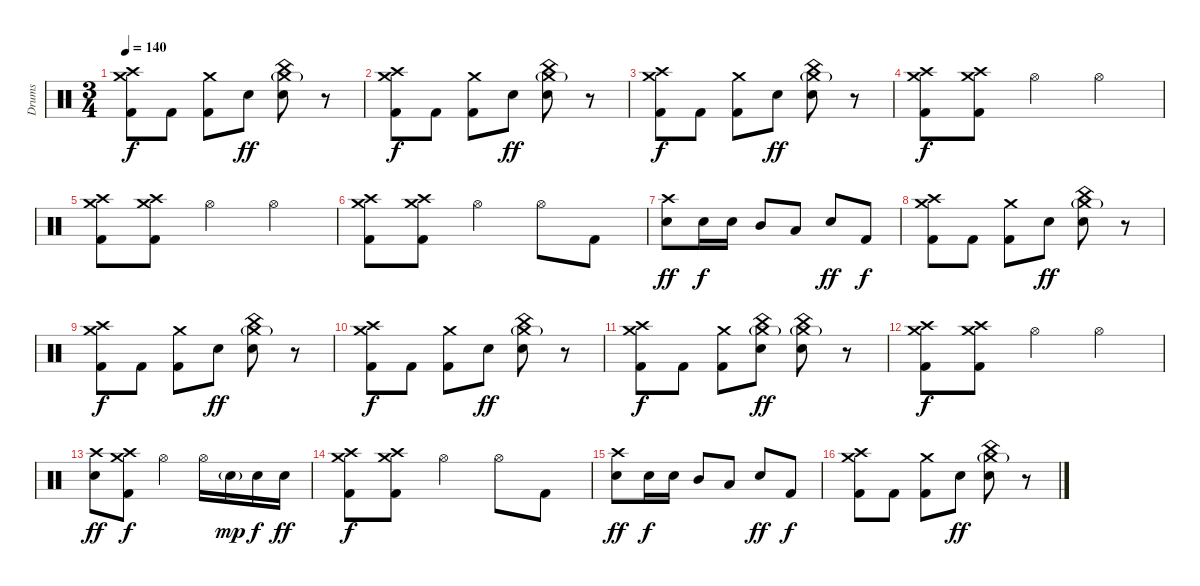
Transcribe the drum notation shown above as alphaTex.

\track ("Drums" "Drums") {instrument percussion}
\staff {score}
\articulation defaults
\ts (3 4)
\tempo 140
\clef neutral
\ks c
("Crash high (hit)" "Crash medium (hit)" "Kick (hit) 2").8{dy f} "Kick (hit) 2".8 ("Crash medium (hit)" "Kick (hit) 2").8 "Snare (hit) 2".8{dy ff} ("China (hit)" "Crash medium (hit)"{g} "Snare (hit) 2").8 r.8 |
("Crash high (hit)" "Crash medium (hit)" "Kick (hit) 2").8{dy f} "Kick (hit) 2".8 ("Crash medium (hit)" "Kick (hit) 2").8 "Snare (hit) 2".8{dy ff} ("China (hit)" "Crash medium (hit)"{g} "Snare (hit) 2").8 r.8 |
("Crash high (hit)" "Crash medium (hit)" "Kick (hit) 2").8{dy f} "Kick (hit) 2".8 ("Crash medium (hit)" "Kick (hit) 2").8 "Snare (hit) 2".8{dy ff} ("China (hit)" "Crash medium (hit)"{g} "Snare (hit) 2").8 r.8 |
("Crash high (hit)" "Crash medium (hit)" "Kick (hit) 2").8{dy f} ("Crash high (hit)" "Crash medium (hit)" "Kick (hit) 2").8 "Hi-Hat (open)".4 "Hi-Hat (open)".4 |
("Crash high (hit)" "Crash medium (hit)" "Kick (hit) 2").8 ("Crash high (hit)" "Crash medium (hit)" "Kick (hit) 2").8 "Hi-Hat (open)".4 "Hi-Hat (open)".4 |
("Crash high (hit)" "Crash medium (hit)" "Kick (hit) 2").8 ("Crash high (hit)" "Crash medium (hit)" "Kick (hit) 2").8 "Hi-Hat (open)".4 "Hi-Hat (open)".8 "Kick (hit) 2".8 |
("Crash high (hit)" "Snare (hit) 2").8{dy ff} "Snare (hit) 2".16{dy f} "Snare (hit) 2".16 "Mid Tom (hit)".8 "Low Tom (hit)".8 "Snare (hit) 2".8{dy ff} "Kick (hit) 2".8{dy f} |
("Crash high (hit)" "Crash medium (hit)" "Kick (hit) 2").8 "Kick (hit) 2".8 ("Crash medium (hit)" "Kick (hit) 2").8 "Snare (hit) 2".8{dy ff} ("China (hit)" "Crash medium (hit)"{g} "Snare (hit) 2").8 r.8 |
("Crash high (hit)" "Crash medium (hit)" "Kick (hit) 2").8{dy f} "Kick (hit) 2".8 ("Crash medium (hit)" "Kick (hit) 2").8 "Snare (hit) 2".8{dy ff} ("China (hit)" "Crash medium (hit)"{g} "Snare (hit) 2").8 r.8 |
("Crash high (hit)" "Crash medium (hit)" "Kick (hit) 2").8{dy f} "Kick (hit) 2".8 ("Crash medium (hit)" "Kick (hit) 2").8 "Snare (hit) 2".8{dy ff} ("China (hit)" "Crash medium (hit)"{g} "Snare (hit) 2").8 r.8 |
("Crash high (hit)" "Crash medium (hit)" "Kick (hit) 2").8{dy f} "Kick (hit) 2".8 ("Crash medium (hit)" "Kick (hit) 2").8 ("China (hit)" "Crash medium (hit)"{g} "Snare (hit) 2").8{dy ff} ("China (hit)" "Crash medium (hit)"{g} "Snare (hit) 2").8 r.8 |
("Crash high (hit)" "Crash medium (hit)" "Kick (hit) 2").8{dy f} ("Crash high (hit)" "Crash medium (hit)" "Kick (hit) 2").8 "Hi-Hat (open)".4 "Hi-Hat (open)".4 |
("Crash high (hit)" "Snare (hit) 2").8{dy ff} ("Crash high (hit)" "Crash medium (hit)" "Kick (hit) 2").8{dy f} "Hi-Hat (open)".4 "Hi-Hat (open)".16 "Snare (hit) 2"{g}.16{dy mp} "Snare (hit) 2".16{dy f} "Snare (hit) 2".16{dy ff} |
("Crash high (hit)" "Crash medium (hit)" "Kick (hit) 2").8{dy f} ("Crash high (hit)" "Crash medium (hit)" "Kick (hit) 2").8 "Hi-Hat (open)".4 "Hi-Hat (open)".8 "Kick (hit) 2".8 |
("Crash high (hit)" "Snare (hit) 2").8{dy ff} "Snare (hit) 2".16{dy f} "Snare (hit) 2".16 "Mid Tom (hit)".8 "Low Tom (hit)".8 "Snare (hit) 2".8{dy ff} "Kick (hit) 2".8{dy f} |
("Crash high (hit)" "Crash medium (hit)" "Kick (hit) 2").8 "Kick (hit) 2".8 ("Crash medium (hit)" "Kick (hit) 2").8 "Snare (hit) 2".8{dy ff} ("China (hit)" "Crash medium (hit)"{g} "Snare (hit) 2").8 r.8
